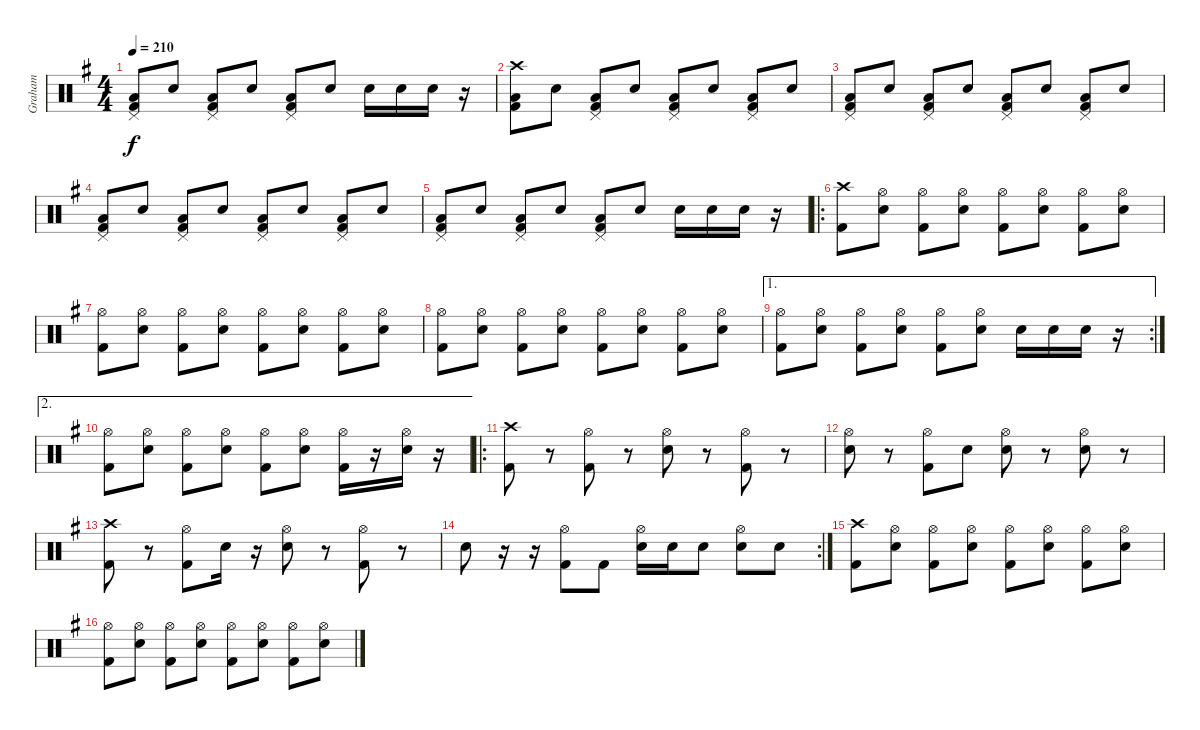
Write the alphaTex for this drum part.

\track ("Graham" "Graham") {instrument percussion}
\staff {score}
\articulation defaults
\ts (4 4)
\tempo 210
\clef neutral
\ks g
("Pedal Hi-Hat (hit)" "Low Floor Tom (hit)" "Kick (hit) 2").8{dy f} "Electric Snare (hit)".8 ("Pedal Hi-Hat (hit)" "Low Floor Tom (hit)" "Kick (hit) 2").8 "Electric Snare (hit)".8 ("Pedal Hi-Hat (hit)" "Low Floor Tom (hit)" "Kick (hit) 2").8 "Electric Snare (hit)".8 "Electric Snare (hit)".16 "Electric Snare (hit)".16 "Electric Snare (hit)".16 r.16 |
("Crash high (hit)" "Low Floor Tom (hit)" "Kick (hit) 2").8 "Electric Snare (hit)".8 ("Pedal Hi-Hat (hit)" "Low Floor Tom (hit)" "Kick (hit) 2").8 "Electric Snare (hit)".8 ("Pedal Hi-Hat (hit)" "Low Floor Tom (hit)" "Kick (hit) 2").8 "Electric Snare (hit)".8 ("Pedal Hi-Hat (hit)" "Low Floor Tom (hit)" "Kick (hit) 2").8 "Electric Snare (hit)".8 |
("Pedal Hi-Hat (hit)" "Low Floor Tom (hit)" "Kick (hit) 2").8 "Electric Snare (hit)".8 ("Pedal Hi-Hat (hit)" "Low Floor Tom (hit)" "Kick (hit) 2").8 "Electric Snare (hit)".8 ("Pedal Hi-Hat (hit)" "Low Floor Tom (hit)" "Kick (hit) 2").8 "Electric Snare (hit)".8 ("Pedal Hi-Hat (hit)" "Low Floor Tom (hit)" "Kick (hit) 2").8 "Electric Snare (hit)".8 |
("Pedal Hi-Hat (hit)" "Low Floor Tom (hit)" "Kick (hit) 2").8 "Electric Snare (hit)".8 ("Pedal Hi-Hat (hit)" "Low Floor Tom (hit)" "Kick (hit) 2").8 "Electric Snare (hit)".8 ("Pedal Hi-Hat (hit)" "Low Floor Tom (hit)" "Kick (hit) 2").8 "Electric Snare (hit)".8 ("Pedal Hi-Hat (hit)" "Low Floor Tom (hit)" "Kick (hit) 2").8 "Electric Snare (hit)".8 |
("Pedal Hi-Hat (hit)" "Low Floor Tom (hit)" "Kick (hit) 2").8 "Electric Snare (hit)".8 ("Pedal Hi-Hat (hit)" "Low Floor Tom (hit)" "Kick (hit) 2").8 "Electric Snare (hit)".8 ("Pedal Hi-Hat (hit)" "Low Floor Tom (hit)" "Kick (hit) 2").8 "Electric Snare (hit)".8 "Electric Snare (hit)".16 "Electric Snare (hit)".16 "Electric Snare (hit)".16 r.16 |
\ro
("Crash high (hit)" "Kick (hit) 2").8 ("Hi-Hat (open)" "Electric Snare (hit)").8 ("Hi-Hat (open)" "Kick (hit) 2").8 ("Hi-Hat (open)" "Electric Snare (hit)").8 ("Hi-Hat (open)" "Kick (hit) 2").8 ("Hi-Hat (open)" "Electric Snare (hit)").8 ("Hi-Hat (open)" "Kick (hit) 2").8 ("Hi-Hat (open)" "Electric Snare (hit)").8 |
("Hi-Hat (open)" "Kick (hit) 2").8 ("Hi-Hat (open)" "Electric Snare (hit)").8 ("Hi-Hat (open)" "Kick (hit) 2").8 ("Hi-Hat (open)" "Electric Snare (hit)").8 ("Hi-Hat (open)" "Kick (hit) 2").8 ("Hi-Hat (open)" "Electric Snare (hit)").8 ("Hi-Hat (open)" "Kick (hit) 2").8 ("Hi-Hat (open)" "Electric Snare (hit)").8 |
("Hi-Hat (open)" "Kick (hit) 2").8 ("Hi-Hat (open)" "Electric Snare (hit)").8 ("Hi-Hat (open)" "Kick (hit) 2").8 ("Hi-Hat (open)" "Electric Snare (hit)").8 ("Hi-Hat (open)" "Kick (hit) 2").8 ("Hi-Hat (open)" "Electric Snare (hit)").8 ("Hi-Hat (open)" "Kick (hit) 2").8 ("Hi-Hat (open)" "Electric Snare (hit)").8 |
\ae 1
\rc 2
("Hi-Hat (open)" "Kick (hit) 2").8 ("Hi-Hat (open)" "Electric Snare (hit)").8 ("Hi-Hat (open)" "Kick (hit) 2").8 ("Hi-Hat (open)" "Electric Snare (hit)").8 ("Hi-Hat (open)" "Kick (hit) 2").8 ("Hi-Hat (open)" "Electric Snare (hit)").8 "Electric Snare (hit)".16 "Electric Snare (hit)".16 "Electric Snare (hit)".16 r.16 |
\ae 2
("Hi-Hat (open)" "Kick (hit) 2").8 ("Hi-Hat (open)" "Electric Snare (hit)").8 ("Hi-Hat (open)" "Kick (hit) 2").8 ("Hi-Hat (open)" "Electric Snare (hit)").8 ("Hi-Hat (open)" "Kick (hit) 2").8 ("Hi-Hat (open)" "Electric Snare (hit)").8 ("Hi-Hat (open)" "Kick (hit) 2").16 r.16 ("Hi-Hat (open)" "Electric Snare (hit)").16 r.16 |
\ro
("Crash high (hit)" "Kick (hit) 2").8 r.8 ("Hi-Hat (open)" "Kick (hit) 2").8 r.8 ("Hi-Hat (open)" "Electric Snare (hit)").8 r.8 ("Hi-Hat (open)" "Kick (hit) 2").8 r.8 |
("Hi-Hat (open)" "Electric Snare (hit)").8 r.8 ("Hi-Hat (open)" "Kick (hit) 2").8 "Electric Snare (hit)".8 ("Hi-Hat (open)" "Electric Snare (hit)").8 r.8 ("Hi-Hat (open)" "Electric Snare (hit)").8 r.8 |
("Crash high (hit)" "Kick (hit) 2").8 r.8 ("Hi-Hat (open)" "Kick (hit) 2").8 "Electric Snare (hit)".16 r.16 ("Hi-Hat (open)" "Electric Snare (hit)").8 r.8 ("Hi-Hat (open)" "Kick (hit) 2").8 r.8 |
\rc 2 "Electric Snare (hit)".8
r.16 r.16 ("Hi-Hat (open)" "Kick (hit) 2").8 "Kick (hit) 2".8 ("Hi-Hat (open)" "Electric Snare (hit)").16 "Electric Snare (hit)".16 "Electric Snare (hit)".8 ("Hi-Hat (open)" "Electric Snare (hit)").8 "Electric Snare (hit)".8 |
("Crash high (hit)" "Kick (hit) 2").8 ("Hi-Hat (open)" "Electric Snare (hit)").8 ("Hi-Hat (open)" "Kick (hit) 2").8 ("Hi-Hat (open)" "Electric Snare (hit)").8 ("Hi-Hat (open)" "Kick (hit) 2").8 ("Hi-Hat (open)" "Electric Snare (hit)").8 ("Hi-Hat (open)" "Kick (hit) 2").8 ("Hi-Hat (open)" "Electric Snare (hit)").8 |
("Hi-Hat (open)" "Kick (hit) 2").8 ("Hi-Hat (open)" "Electric Snare (hit)").8 ("Hi-Hat (open)" "Kick (hit) 2").8 ("Hi-Hat (open)" "Electric Snare (hit)").8 ("Hi-Hat (open)" "Kick (hit) 2").8 ("Hi-Hat (open)" "Electric Snare (hit)").8 ("Hi-Hat (open)" "Kick (hit) 2").8 ("Hi-Hat (open)" "Electric Snare (hit)").8
